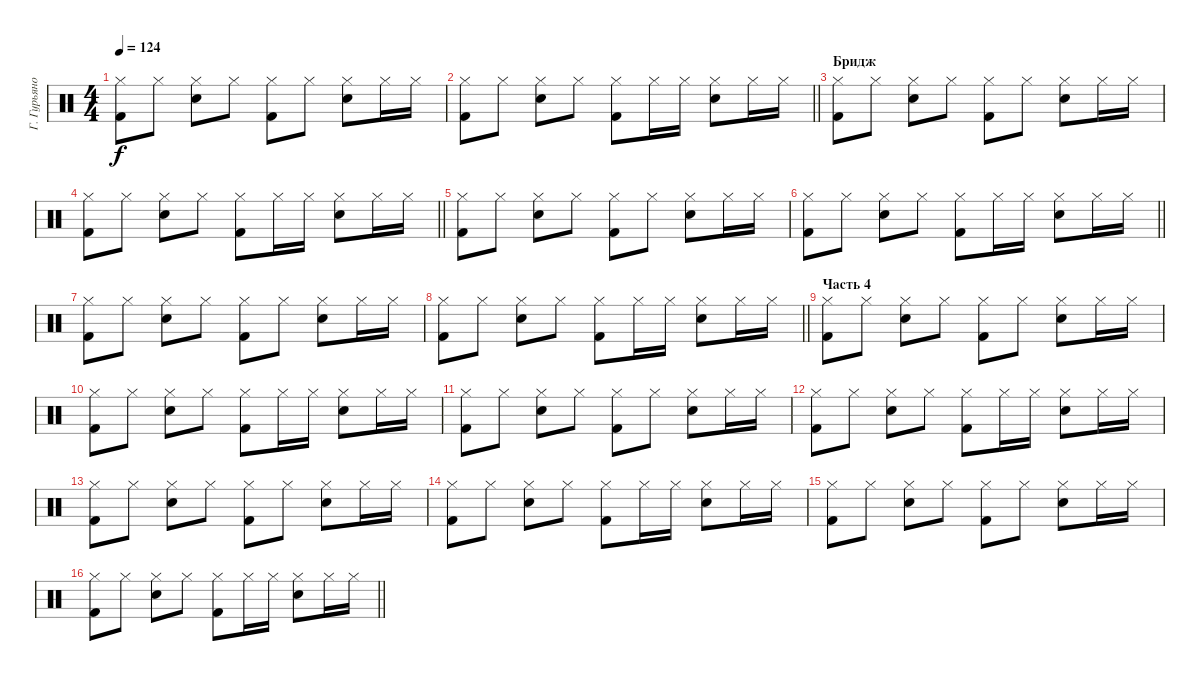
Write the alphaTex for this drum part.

\track ("Г. Гурьянов" "Г. Гурьяно") {instrument percussion}
\staff
\articulation defaults
\ts (4 4)
\tempo 124
\clef neutral
\ks c
("Hi-Hat (closed)" "Kick (hit) 2").8{dy f} "Hi-Hat (closed)".8 ("Hi-Hat (closed)" "Snare (hit) 2").8 "Hi-Hat (closed)".8 ("Hi-Hat (closed)" "Kick (hit) 2").8 "Hi-Hat (closed)".8 ("Hi-Hat (closed)" "Snare (hit) 2").8 "Hi-Hat (closed)".16 "Hi-Hat (closed)".16 |
\barLineRight lightlight
("Hi-Hat (closed)" "Kick (hit) 2").8 "Hi-Hat (closed)".8 ("Hi-Hat (closed)" "Snare (hit) 2").8 "Hi-Hat (closed)".8 ("Hi-Hat (closed)" "Kick (hit) 2").8 "Hi-Hat (closed)".16 "Hi-Hat (closed)".16 ("Hi-Hat (closed)" "Snare (hit) 2").8 "Hi-Hat (closed)".16 "Hi-Hat (closed)".16 |
\section ("" "Бридж")
("Hi-Hat (closed)" "Kick (hit) 2").8 "Hi-Hat (closed)".8 ("Hi-Hat (closed)" "Snare (hit) 2").8 "Hi-Hat (closed)".8 ("Hi-Hat (closed)" "Kick (hit) 2").8 "Hi-Hat (closed)".8 ("Hi-Hat (closed)" "Snare (hit) 2").8 "Hi-Hat (closed)".16 "Hi-Hat (closed)".16 |
\barLineRight lightlight
("Hi-Hat (closed)" "Kick (hit) 2").8 "Hi-Hat (closed)".8 ("Hi-Hat (closed)" "Snare (hit) 2").8 "Hi-Hat (closed)".8 ("Hi-Hat (closed)" "Kick (hit) 2").8 "Hi-Hat (closed)".16 "Hi-Hat (closed)".16 ("Hi-Hat (closed)" "Snare (hit) 2").8 "Hi-Hat (closed)".16 "Hi-Hat (closed)".16 |
("Hi-Hat (closed)" "Kick (hit) 2").8 "Hi-Hat (closed)".8 ("Hi-Hat (closed)" "Snare (hit) 2").8 "Hi-Hat (closed)".8 ("Hi-Hat (closed)" "Kick (hit) 2").8 "Hi-Hat (closed)".8 ("Hi-Hat (closed)" "Snare (hit) 2").8 "Hi-Hat (closed)".16 "Hi-Hat (closed)".16 |
\barLineRight lightlight
("Hi-Hat (closed)" "Kick (hit) 2").8 "Hi-Hat (closed)".8 ("Hi-Hat (closed)" "Snare (hit) 2").8 "Hi-Hat (closed)".8 ("Hi-Hat (closed)" "Kick (hit) 2").8 "Hi-Hat (closed)".16 "Hi-Hat (closed)".16 ("Hi-Hat (closed)" "Snare (hit) 2").8 "Hi-Hat (closed)".16 "Hi-Hat (closed)".16 |
("Hi-Hat (closed)" "Kick (hit) 2").8 "Hi-Hat (closed)".8 ("Hi-Hat (closed)" "Snare (hit) 2").8 "Hi-Hat (closed)".8 ("Hi-Hat (closed)" "Kick (hit) 2").8 "Hi-Hat (closed)".8 ("Hi-Hat (closed)" "Snare (hit) 2").8 "Hi-Hat (closed)".16 "Hi-Hat (closed)".16 |
\barLineRight lightlight
("Hi-Hat (closed)" "Kick (hit) 2").8 "Hi-Hat (closed)".8 ("Hi-Hat (closed)" "Snare (hit) 2").8 "Hi-Hat (closed)".8 ("Hi-Hat (closed)" "Kick (hit) 2").8 "Hi-Hat (closed)".16 "Hi-Hat (closed)".16 ("Hi-Hat (closed)" "Snare (hit) 2").8 "Hi-Hat (closed)".16 "Hi-Hat (closed)".16 |
\section ("" "Часть 4")
("Hi-Hat (closed)" "Kick (hit) 2").8 "Hi-Hat (closed)".8 ("Hi-Hat (closed)" "Snare (hit) 2").8 "Hi-Hat (closed)".8 ("Hi-Hat (closed)" "Kick (hit) 2").8 "Hi-Hat (closed)".8 ("Hi-Hat (closed)" "Snare (hit) 2").8 "Hi-Hat (closed)".16 "Hi-Hat (closed)".16 |
("Hi-Hat (closed)" "Kick (hit) 2").8 "Hi-Hat (closed)".8 ("Hi-Hat (closed)" "Snare (hit) 2").8 "Hi-Hat (closed)".8 ("Hi-Hat (closed)" "Kick (hit) 2").8 "Hi-Hat (closed)".16 "Hi-Hat (closed)".16 ("Hi-Hat (closed)" "Snare (hit) 2").8 "Hi-Hat (closed)".16 "Hi-Hat (closed)".16 |
("Hi-Hat (closed)" "Kick (hit) 2").8 "Hi-Hat (closed)".8 ("Hi-Hat (closed)" "Snare (hit) 2").8 "Hi-Hat (closed)".8 ("Hi-Hat (closed)" "Kick (hit) 2").8 "Hi-Hat (closed)".8 ("Hi-Hat (closed)" "Snare (hit) 2").8 "Hi-Hat (closed)".16 "Hi-Hat (closed)".16 |
("Hi-Hat (closed)" "Kick (hit) 2").8 "Hi-Hat (closed)".8 ("Hi-Hat (closed)" "Snare (hit) 2").8 "Hi-Hat (closed)".8 ("Hi-Hat (closed)" "Kick (hit) 2").8 "Hi-Hat (closed)".16 "Hi-Hat (closed)".16 ("Hi-Hat (closed)" "Snare (hit) 2").8 "Hi-Hat (closed)".16 "Hi-Hat (closed)".16 |
("Hi-Hat (closed)" "Kick (hit) 2").8 "Hi-Hat (closed)".8 ("Hi-Hat (closed)" "Snare (hit) 2").8 "Hi-Hat (closed)".8 ("Hi-Hat (closed)" "Kick (hit) 2").8 "Hi-Hat (closed)".8 ("Hi-Hat (closed)" "Snare (hit) 2").8 "Hi-Hat (closed)".16 "Hi-Hat (closed)".16 |
("Hi-Hat (closed)" "Kick (hit) 2").8 "Hi-Hat (closed)".8 ("Hi-Hat (closed)" "Snare (hit) 2").8 "Hi-Hat (closed)".8 ("Hi-Hat (closed)" "Kick (hit) 2").8 "Hi-Hat (closed)".16 "Hi-Hat (closed)".16 ("Hi-Hat (closed)" "Snare (hit) 2").8 "Hi-Hat (closed)".16 "Hi-Hat (closed)".16 |
("Hi-Hat (closed)" "Kick (hit) 2").8 "Hi-Hat (closed)".8 ("Hi-Hat (closed)" "Snare (hit) 2").8 "Hi-Hat (closed)".8 ("Hi-Hat (closed)" "Kick (hit) 2").8 "Hi-Hat (closed)".8 ("Hi-Hat (closed)" "Snare (hit) 2").8 "Hi-Hat (closed)".16 "Hi-Hat (closed)".16 |
\barLineRight lightlight
("Hi-Hat (closed)" "Kick (hit) 2").8 "Hi-Hat (closed)".8 ("Hi-Hat (closed)" "Snare (hit) 2").8 "Hi-Hat (closed)".8 ("Hi-Hat (closed)" "Kick (hit) 2").8 "Hi-Hat (closed)".16 "Hi-Hat (closed)".16 ("Hi-Hat (closed)" "Snare (hit) 2").8 "Hi-Hat (closed)".16 "Hi-Hat (closed)".16
